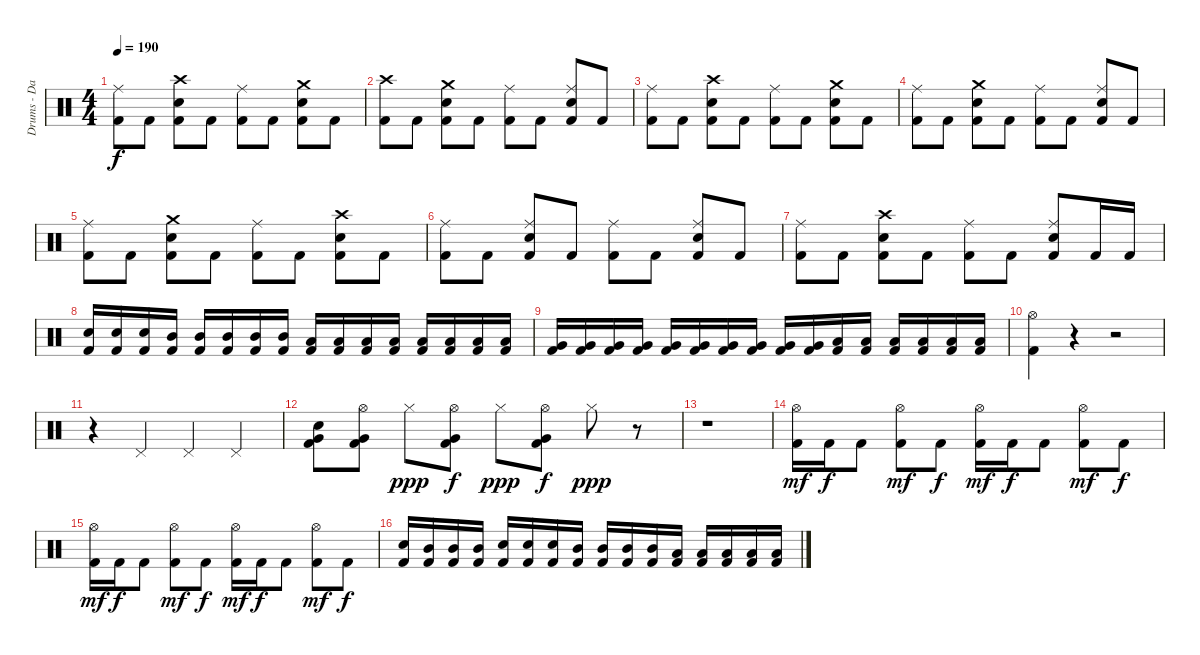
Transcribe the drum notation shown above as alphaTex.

\track ("Drums - Daniel Zimmermann" "Drums - Da") {instrument percussion}
\staff {score}
\articulation defaults
\ts (4 4)
\tempo 190
\clef neutral
\ks c
("Kick (hit) 2" "Ride (middle)").8{dy f} "Kick (hit) 2".8 ("Kick (hit) 2" "Electric Snare (hit)" "Crash high (hit)").8 "Kick (hit) 2".8 ("Kick (hit) 2" "Ride (middle)").8 "Kick (hit) 2".8 ("Kick (hit) 2" "Electric Snare (hit)" "Crash medium (hit)").8 "Kick (hit) 2".8 |
("Kick (hit) 2" "Crash high (hit)").8 "Kick (hit) 2".8 ("Kick (hit) 2" "Electric Snare (hit)" "Crash medium (hit)").8 "Kick (hit) 2".8 ("Kick (hit) 2" "Ride (middle)").8 "Kick (hit) 2".8 ("Kick (hit) 2" "Electric Snare (hit)" "Ride (middle)").8 "Kick (hit) 2".8 |
("Kick (hit) 2" "Ride (middle)").8 "Kick (hit) 2".8 ("Kick (hit) 2" "Electric Snare (hit)" "Crash high (hit)").8 "Kick (hit) 2".8 ("Kick (hit) 2" "Ride (middle)").8 "Kick (hit) 2".8 ("Kick (hit) 2" "Electric Snare (hit)" "Crash medium (hit)").8 "Kick (hit) 2".8 |
("Kick (hit) 2" "Ride (middle)").8 "Kick (hit) 2".8 ("Kick (hit) 2" "Electric Snare (hit)" "Crash medium (hit)").8 "Kick (hit) 2".8 ("Kick (hit) 2" "Ride (middle)").8 "Kick (hit) 2".8 ("Kick (hit) 2" "Electric Snare (hit)" "Ride (middle)").8 "Kick (hit) 2".8 |
("Kick (hit) 2" "Ride (middle)").8 "Kick (hit) 2".8 ("Kick (hit) 2" "Electric Snare (hit)" "Crash medium (hit)").8 "Kick (hit) 2".8 ("Kick (hit) 2" "Ride (middle)").8 "Kick (hit) 2".8 ("Kick (hit) 2" "Electric Snare (hit)" "Crash high (hit)").8 "Kick (hit) 2".8 |
("Kick (hit) 2" "Ride (middle)").8 "Kick (hit) 2".8 ("Kick (hit) 2" "Electric Snare (hit)" "Ride (middle)").8 "Kick (hit) 2".8 ("Kick (hit) 2" "Ride (middle)").8 "Kick (hit) 2".8 ("Kick (hit) 2" "Electric Snare (hit)" "Ride (middle)").8 "Kick (hit) 2".8 |
("Kick (hit) 2" "Ride (middle)").8 "Kick (hit) 2".8 ("Kick (hit) 2" "Electric Snare (hit)" "Crash high (hit)").8 "Kick (hit) 2".8 ("Kick (hit) 2" "Ride (middle)").8 "Kick (hit) 2".8 ("Kick (hit) 2" "Electric Snare (hit)" "Ride (middle)").8 "Kick (hit) 2".16 "Kick (hit) 2".16 |
("Kick (hit) 2" "Electric Snare (hit)").16 ("Kick (hit) 2" "Electric Snare (hit)").16 ("Kick (hit) 2" "Electric Snare (hit)").16 ("Kick (hit) 2" "Mid Tom (hit)").16 ("Kick (hit) 2" "Mid Tom (hit)").16 ("Kick (hit) 2" "Mid Tom (hit)").16 ("Kick (hit) 2" "Mid Tom (hit)").16 ("Kick (hit) 2" "Mid Tom (hit)").16 ("Kick (hit) 2" "Low Tom (hit)").16 ("Kick (hit) 2" "Low Tom (hit)").16 ("Kick (hit) 2" "Low Tom (hit)").16 ("Kick (hit) 2" "Low Tom (hit)").16 ("Kick (hit) 2" "Low Tom (hit)").16 ("Kick (hit) 2" "Low Tom (hit)").16 ("Kick (hit) 2" "Low Tom (hit)").16 ("Kick (hit) 2" "Low Tom (hit)").16 |
("Kick (hit) 2" "Very Low Tom (hit)").16 ("Kick (hit) 2" "Very Low Tom (hit)").16 ("Kick (hit) 2" "Very Low Tom (hit)").16 ("Kick (hit) 2" "Very Low Tom (hit)").16 ("Kick (hit) 2" "Very Low Tom (hit)").16 ("Kick (hit) 2" "Very Low Tom (hit)").16 ("Kick (hit) 2" "Very Low Tom (hit)").16 ("Kick (hit) 2" "Very Low Tom (hit)").16 ("Kick (hit) 2" "Very Low Tom (hit)").16 ("Kick (hit) 2" "Very Low Tom (hit)").16 ("Kick (hit) 2" "Low Floor Tom (hit)").16 ("Kick (hit) 2" "Low Floor Tom (hit)").16 ("Kick (hit) 2" "Low Floor Tom (hit)").16 ("Kick (hit) 2" "Low Floor Tom (hit)").16 ("Kick (hit) 2" "Low Floor Tom (hit)").16 ("Kick (hit) 2" "Low Floor Tom (hit)").16 |
("Kick (hit) 2" "Hi-Hat (open)").4 r.4 r.2 |
r.4 "Pedal Hi-Hat (hit)".4 "Pedal Hi-Hat (hit)".4 "Pedal Hi-Hat (hit)".4 |
("Kick (hit) 2" "Electric Snare (hit)" "Very Low Tom (hit)").8 ("Kick (hit) 2" "Hi-Hat (open)" "Very Low Tom (hit)").8 "Hi-Hat (closed)".8{dy ppp} ("Kick (hit) 2" "Hi-Hat (open)" "Very Low Tom (hit)").8{dy f} "Hi-Hat (closed)".8{dy ppp} ("Kick (hit) 2" "Hi-Hat (open)" "Very Low Tom (hit)").8{dy f} "Hi-Hat (closed)".8{dy ppp} r.8 |
r.1 |
("Kick (hit) 2" "Hi-Hat (open)").16{dy mf} "Kick (hit) 2".16{dy f} "Kick (hit) 2".8 ("Kick (hit) 2" "Hi-Hat (open)").8{dy mf} "Kick (hit) 2".8{dy f} ("Kick (hit) 2" "Hi-Hat (open)").16{dy mf} "Kick (hit) 2".16{dy f} "Kick (hit) 2".8 ("Kick (hit) 2" "Hi-Hat (open)").8{dy mf} "Kick (hit) 2".8{dy f} |
("Kick (hit) 2" "Hi-Hat (open)").16{dy mf} "Kick (hit) 2".16{dy f} "Kick (hit) 2".8 ("Kick (hit) 2" "Hi-Hat (open)").8{dy mf} "Kick (hit) 2".8{dy f} ("Kick (hit) 2" "Hi-Hat (open)").16{dy mf} "Kick (hit) 2".16{dy f} "Kick (hit) 2".8 ("Kick (hit) 2" "Hi-Hat (open)").8{dy mf} "Kick (hit) 2".8{dy f} |
("Kick (hit) 2" "Electric Snare (hit)").16 ("Kick (hit) 2" "Mid Tom (hit)").16 ("Kick (hit) 2" "Mid Tom (hit)").16 ("Kick (hit) 2" "Mid Tom (hit)").16 ("Kick (hit) 2" "Electric Snare (hit)").16 ("Kick (hit) 2" "Electric Snare (hit)").16 ("Kick (hit) 2" "Electric Snare (hit)").16 ("Kick (hit) 2" "Mid Tom (hit)").16 ("Kick (hit) 2" "Mid Tom (hit)").16 ("Kick (hit) 2" "Mid Tom (hit)").16 ("Kick (hit) 2" "Mid Tom (hit)").16 ("Kick (hit) 2" "Low Tom (hit)").16 ("Kick (hit) 2" "Low Tom (hit)").16 ("Kick (hit) 2" "Low Tom (hit)").16 ("Kick (hit) 2" "Low Tom (hit)").16 ("Kick (hit) 2" "Low Tom (hit)").16
